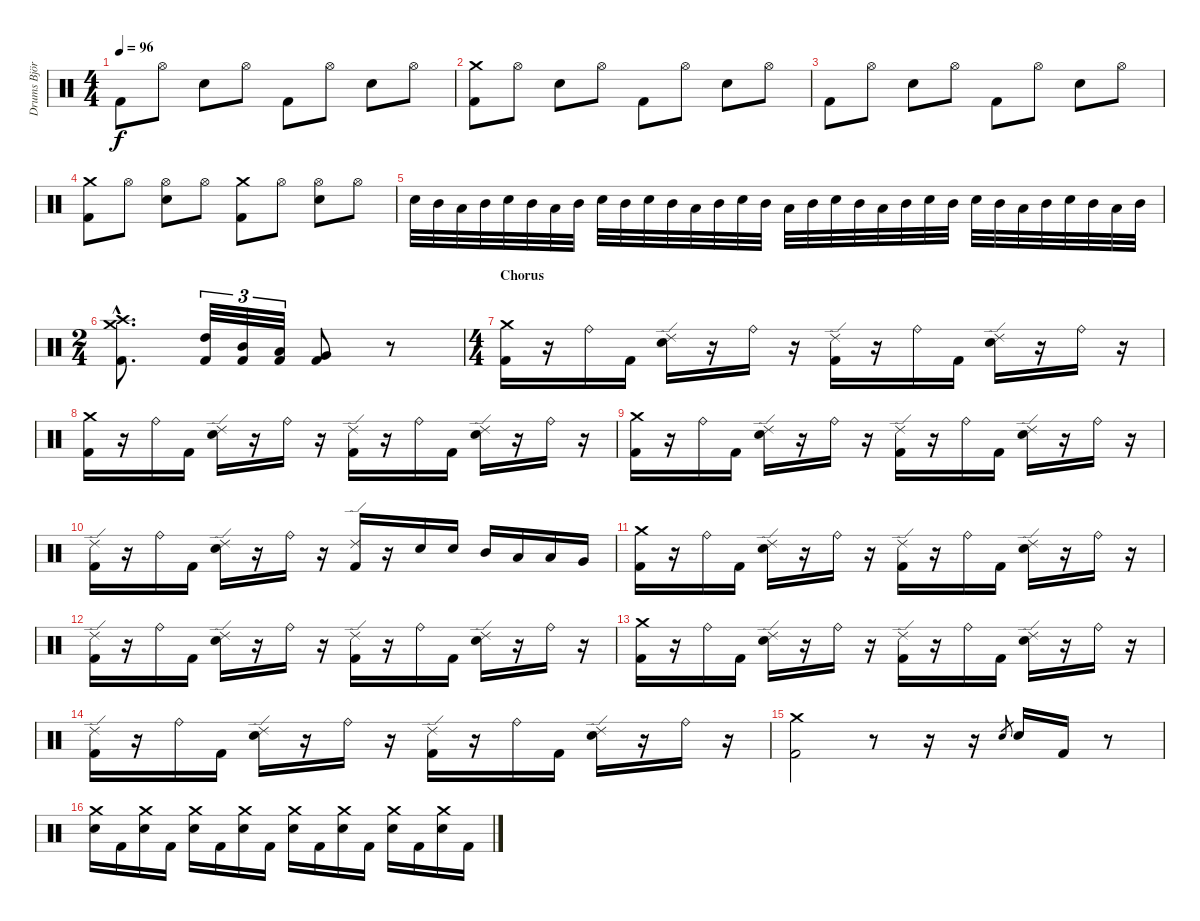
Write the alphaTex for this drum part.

\track ("Drums Björn Fryklund" "Drums Björ") {instrument percussion}
\staff {score}
\articulation defaults
\ts (4 4)
\tempo 96
\clef neutral
\ks c "Kick (hit) 2".8{dy f} "Hi-Hat (open)".8 "Snare (hit) 2".8 "Hi-Hat (open)".8 "Kick (hit) 2".8 "Hi-Hat (open)".8 "Snare (hit) 2".8 "Hi-Hat (open)".8
|
("Crash medium (hit)" "Kick (hit) 2").8 "Hi-Hat (open)".8 "Snare (hit) 2".8 "Hi-Hat (open)".8 "Kick (hit) 2".8 "Hi-Hat (open)".8 "Snare (hit) 2".8 "Hi-Hat (open)".8 |
"Kick (hit) 2".8 "Hi-Hat (open)".8 "Snare (hit) 2".8 "Hi-Hat (open)".8 "Kick (hit) 2".8 "Hi-Hat (open)".8 "Snare (hit) 2".8 "Hi-Hat (open)".8 |
("Crash medium (hit)" "Kick (hit) 2").8 "Hi-Hat (open)".8 ("Hi-Hat (open)" "Snare (hit) 2").8 "Hi-Hat (open)".8 ("Crash medium (hit)" "Kick (hit) 2").8 "Hi-Hat (open)".8 ("Hi-Hat (open)" "Snare (hit) 2").8 "Hi-Hat (open)".8 |
"Snare (hit) 2".32 "Mid Tom (hit)".32 "Low Tom (hit)".32 "Mid Tom (hit)".32 "Snare (hit) 2".32 "Mid Tom (hit)".32 "Low Tom (hit)".32 "Mid Tom (hit)".32 "Snare (hit) 2".32 "Mid Tom (hit)".32 "Snare (hit) 2".32 "Mid Tom (hit)".32 "Low Tom (hit)".32 "Mid Tom (hit)".32 "Snare (hit) 2".32 "Mid Tom (hit)".32 "Low Tom (hit)".32 "Mid Tom (hit)".32 "Snare (hit) 2".32 "Mid Tom (hit)".32 "Low Tom (hit)".32 "Mid Tom (hit)".32 "Snare (hit) 2".32 "Mid Tom (hit)".32 "Snare (hit) 2".32 "Mid Tom (hit)".32 "Low Tom (hit)".32 "Mid Tom (hit)".32 "Snare (hit) 2".32 "Mid Tom (hit)".32 "Low Tom (hit)".32 "Mid Tom (hit)".32 |
\ts (2 4)
("Crash medium (hit)"{hac} "Crash high (hit)"{hac} "Kick (hit) 2"{hac}).8{d} ("High Tom (hit)" "Kick (hit) 2").32{tu (3 2)} ("Mid Tom (hit)" "Kick (hit) 2").32{tu (3 2)} ("Low Tom (hit)" "Kick (hit) 2").32{tu (3 2)} ("Very Low Tom (hit)" "Kick (hit) 2").8 r.8 |
\ts (4 4)
\section ("" "Chorus")
("Crash medium (hit)" "Kick (hit) 2").16 r.16 "Ride (bell)".16 "Kick (hit) 2".16 ("Ride (edge) 2" "Snare (hit) 2").16 r.16 "Ride (bell)".16 r.16 ("Ride (edge) 2" "Kick (hit) 2").16 r.16 "Ride (bell)".16 "Kick (hit) 2".16 ("Ride (edge) 2" "Snare (hit) 2").16 r.16 "Ride (bell)".16 r.16 |
("Crash medium (hit)" "Kick (hit) 2").16 r.16 "Ride (bell)".16 "Kick (hit) 2".16 ("Ride (edge) 2" "Snare (hit) 2").16 r.16 "Ride (bell)".16 r.16 ("Ride (edge) 2" "Kick (hit) 2").16 r.16 "Ride (bell)".16 "Kick (hit) 2".16 ("Ride (edge) 2" "Snare (hit) 2").16 r.16 "Ride (bell)".16 r.16 |
("Crash medium (hit)" "Kick (hit) 2").16 r.16 "Ride (bell)".16 "Kick (hit) 2".16 ("Ride (edge) 2" "Snare (hit) 2").16 r.16 "Ride (bell)".16 r.16 ("Ride (edge) 2" "Kick (hit) 2").16 r.16 "Ride (bell)".16 "Kick (hit) 2".16 ("Ride (edge) 2" "Snare (hit) 2").16 r.16 "Ride (bell)".16 r.16 |
("Ride (edge) 2" "Kick (hit) 2").16 r.16 "Ride (bell)".16 "Kick (hit) 2".16 ("Ride (edge) 2" "Snare (hit) 2").16 r.16 "Ride (bell)".16 r.16 ("Ride (edge) 2" "Kick (hit) 2").16 r.16 "Snare (hit) 2".16 "Snare (hit) 2".16 "Mid Tom (hit)".16 "Low Tom (hit)".16 "Low Tom (hit)".16 "Very Low Tom (hit)".16 |
("Crash medium (hit)" "Kick (hit) 2").16 r.16 "Ride (bell)".16 "Kick (hit) 2".16 ("Ride (edge) 2" "Snare (hit) 2").16 r.16 "Ride (bell)".16 r.16 ("Ride (edge) 2" "Kick (hit) 2").16 r.16 "Ride (bell)".16 "Kick (hit) 2".16 ("Ride (edge) 2" "Snare (hit) 2").16 r.16 "Ride (bell)".16 r.16 |
("Ride (edge) 2" "Kick (hit) 2").16 r.16 "Ride (bell)".16 "Kick (hit) 2".16 ("Ride (edge) 2" "Snare (hit) 2").16 r.16 "Ride (bell)".16 r.16 ("Ride (edge) 2" "Kick (hit) 2").16 r.16 "Ride (bell)".16 "Kick (hit) 2".16 ("Ride (edge) 2" "Snare (hit) 2").16 r.16 "Ride (bell)".16 r.16 |
("Crash medium (hit)" "Kick (hit) 2").16 r.16 "Ride (bell)".16 "Kick (hit) 2".16 ("Ride (edge) 2" "Snare (hit) 2").16 r.16 "Ride (bell)".16 r.16 ("Ride (edge) 2" "Kick (hit) 2").16 r.16 "Ride (bell)".16 "Kick (hit) 2".16 ("Ride (edge) 2" "Snare (hit) 2").16 r.16 "Ride (bell)".16 r.16 |
("Ride (edge) 2" "Kick (hit) 2").16 r.16 "Ride (bell)".16 "Kick (hit) 2".16 ("Ride (edge) 2" "Snare (hit) 2").16 r.16 "Ride (bell)".16 r.16 ("Ride (edge) 2" "Kick (hit) 2").16 r.16 "Ride (bell)".16 "Kick (hit) 2".16 ("Ride (edge) 2" "Snare (hit) 2").16 r.16 "Ride (bell)".16 r.16 |
("Crash medium (hit)" "Kick (hit) 2").2 r.8 r.16 r.16 "Snare (hit) 2".8{gr} "Snare (hit) 2".16 "Kick (hit) 2".16 r.8 |
("Crash medium (hit)" "Snare (hit) 2").16 "Kick (hit) 2".16 ("Crash medium (hit)" "Snare (hit) 2").16 "Kick (hit) 2".16 ("Crash medium (hit)" "Snare (hit) 2").16 "Kick (hit) 2".16 ("Crash medium (hit)" "Snare (hit) 2").16 "Kick (hit) 2".16 ("Crash medium (hit)" "Snare (hit) 2").16 "Kick (hit) 2".16 ("Crash medium (hit)" "Snare (hit) 2").16 "Kick (hit) 2".16 ("Crash medium (hit)" "Snare (hit) 2").16 "Kick (hit) 2".16 ("Crash medium (hit)" "Snare (hit) 2").16 "Kick (hit) 2".16
